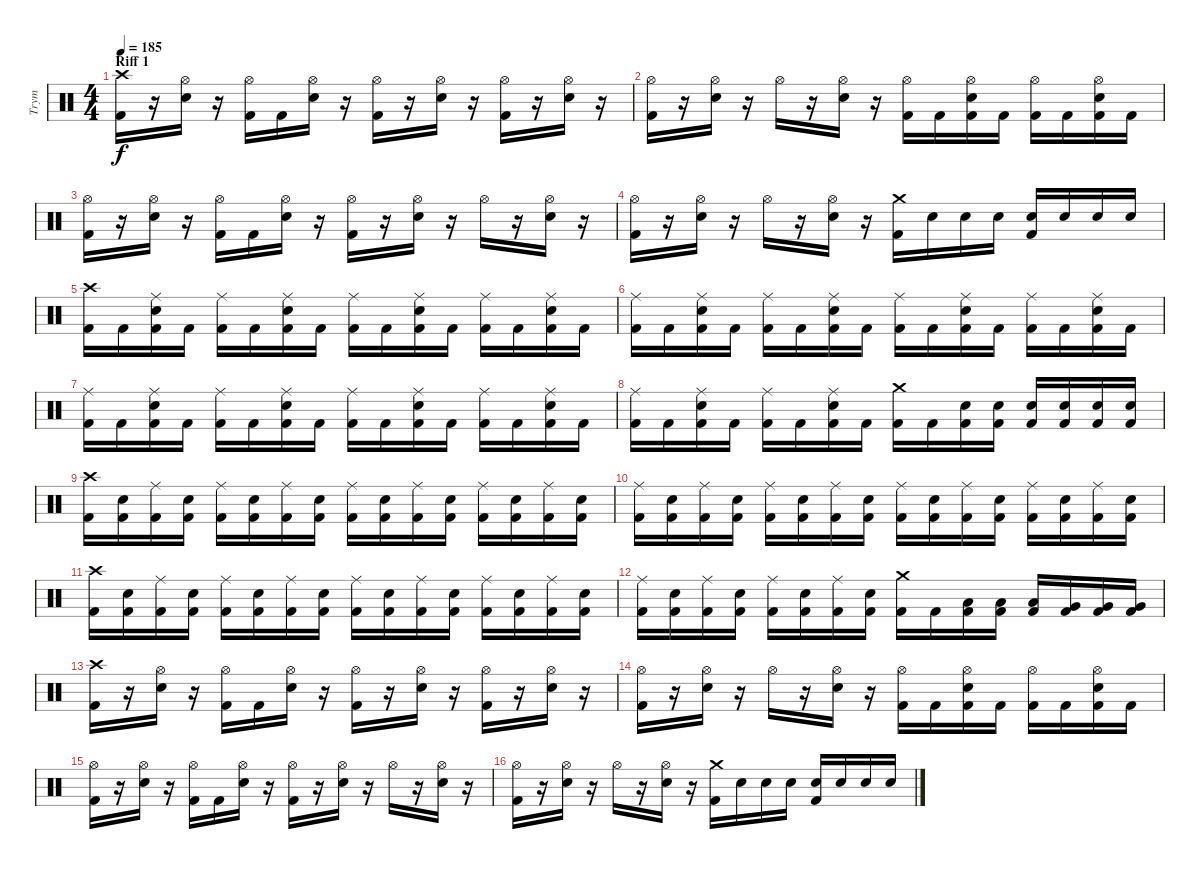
\track ("Trym" "Trym") {instrument percussion}
\staff {score}
\articulation defaults
\ts (4 4)
\section ("" "Riff 1")
\tempo 185
\clef neutral
\ks c
("Kick (hit) 2" "Crash high (hit)").16{dy f} r.16 ("Electric Snare (hit)" "Hi-Hat (open)").16 r.16 ("Kick (hit) 2" "Hi-Hat (open)").16 "Kick (hit) 2".16 ("Electric Snare (hit)" "Hi-Hat (open)").16 r.16 ("Kick (hit) 2" "Hi-Hat (open)").16 r.16 ("Electric Snare (hit)" "Hi-Hat (open)").16 r.16 ("Kick (hit) 2" "Hi-Hat (open)").16 r.16 ("Electric Snare (hit)" "Hi-Hat (open)").16 r.16 |
("Kick (hit) 2" "Hi-Hat (open)").16 r.16 ("Electric Snare (hit)" "Hi-Hat (open)").16 r.16 "Hi-Hat (open)".16 r.16 ("Electric Snare (hit)" "Hi-Hat (open)").16 r.16 ("Kick (hit) 2" "Hi-Hat (open)").16 "Kick (hit) 2".16 ("Kick (hit) 2" "Electric Snare (hit)" "Hi-Hat (open)").16 "Kick (hit) 2".16 ("Kick (hit) 2" "Hi-Hat (open)").16 "Kick (hit) 2".16 ("Kick (hit) 2" "Electric Snare (hit)" "Hi-Hat (open)").16 "Kick (hit) 2".16 |
("Kick (hit) 2" "Hi-Hat (open)").16 r.16 ("Electric Snare (hit)" "Hi-Hat (open)").16 r.16 ("Kick (hit) 2" "Hi-Hat (open)").16 "Kick (hit) 2".16 ("Electric Snare (hit)" "Hi-Hat (open)").16 r.16 ("Kick (hit) 2" "Hi-Hat (open)").16 r.16 ("Electric Snare (hit)" "Hi-Hat (open)").16 r.16 "Hi-Hat (open)".16 r.16 ("Electric Snare (hit)" "Hi-Hat (open)").16 r.16 |
("Kick (hit) 2" "Hi-Hat (open)").16 r.16 ("Electric Snare (hit)" "Hi-Hat (open)").16 r.16 "Hi-Hat (open)".16 r.16 ("Electric Snare (hit)" "Hi-Hat (open)").16 r.16 ("Kick (hit) 2" "Crash medium (hit)").16 "Electric Snare (hit)".16 "Electric Snare (hit)".16 "Electric Snare (hit)".16 ("Kick (hit) 2" "Electric Snare (hit)").16 "Electric Snare (hit)".16 "Electric Snare (hit)".16 "Electric Snare (hit)".16 |
("Kick (hit) 2" "Crash high (hit)").16 "Kick (hit) 2".16 ("Kick (hit) 2" "Electric Snare (hit)" "Ride (middle)").16 "Kick (hit) 2".16 ("Kick (hit) 2" "Ride (middle)").16 "Kick (hit) 2".16 ("Kick (hit) 2" "Electric Snare (hit)" "Ride (middle)").16 "Kick (hit) 2".16 ("Kick (hit) 2" "Ride (middle)").16 "Kick (hit) 2".16 ("Kick (hit) 2" "Electric Snare (hit)" "Ride (middle)").16 "Kick (hit) 2".16 ("Kick (hit) 2" "Ride (middle)").16 "Kick (hit) 2".16 ("Kick (hit) 2" "Electric Snare (hit)" "Ride (middle)").16 "Kick (hit) 2".16 |
("Kick (hit) 2" "Ride (middle)").16 "Kick (hit) 2".16 ("Kick (hit) 2" "Electric Snare (hit)" "Ride (middle)").16 "Kick (hit) 2".16 ("Kick (hit) 2" "Ride (middle)").16 "Kick (hit) 2".16 ("Kick (hit) 2" "Electric Snare (hit)" "Ride (middle)").16 "Kick (hit) 2".16 ("Kick (hit) 2" "Ride (middle)").16 "Kick (hit) 2".16 ("Kick (hit) 2" "Electric Snare (hit)" "Ride (middle)").16 "Kick (hit) 2".16 ("Kick (hit) 2" "Ride (middle)").16 "Kick (hit) 2".16 ("Kick (hit) 2" "Electric Snare (hit)" "Ride (middle)").16 "Kick (hit) 2".16 |
("Kick (hit) 2" "Ride (middle)").16 "Kick (hit) 2".16 ("Kick (hit) 2" "Electric Snare (hit)" "Ride (middle)").16 "Kick (hit) 2".16 ("Kick (hit) 2" "Ride (middle)").16 "Kick (hit) 2".16 ("Kick (hit) 2" "Electric Snare (hit)" "Ride (middle)").16 "Kick (hit) 2".16 ("Kick (hit) 2" "Ride (middle)").16 "Kick (hit) 2".16 ("Kick (hit) 2" "Electric Snare (hit)" "Ride (middle)").16 "Kick (hit) 2".16 ("Kick (hit) 2" "Ride (middle)").16 "Kick (hit) 2".16 ("Kick (hit) 2" "Electric Snare (hit)" "Ride (middle)").16 "Kick (hit) 2".16 |
("Kick (hit) 2" "Ride (middle)").16 "Kick (hit) 2".16 ("Kick (hit) 2" "Electric Snare (hit)" "Ride (middle)").16 "Kick (hit) 2".16 ("Kick (hit) 2" "Ride (middle)").16 "Kick (hit) 2".16 ("Kick (hit) 2" "Electric Snare (hit)" "Ride (middle)").16 "Kick (hit) 2".16 ("Kick (hit) 2" "Crash medium (hit)").16 "Kick (hit) 2".16 ("Kick (hit) 2" "Electric Snare (hit)").16 ("Kick (hit) 2" "Electric Snare (hit)").16 ("Kick (hit) 2" "Electric Snare (hit)").16 ("Kick (hit) 2" "Electric Snare (hit)").16 ("Kick (hit) 2" "Electric Snare (hit)").16 ("Kick (hit) 2" "Electric Snare (hit)").16 |
("Kick (hit) 2" "Crash high (hit)").16 ("Kick (hit) 2" "Electric Snare (hit)").16 ("Kick (hit) 2" "Ride (middle)").16 ("Kick (hit) 2" "Electric Snare (hit)").16 ("Kick (hit) 2" "Ride (middle)").16 ("Kick (hit) 2" "Electric Snare (hit)").16 ("Kick (hit) 2" "Ride (middle)").16 ("Kick (hit) 2" "Electric Snare (hit)").16 ("Kick (hit) 2" "Ride (middle)").16 ("Kick (hit) 2" "Electric Snare (hit)").16 ("Kick (hit) 2" "Ride (middle)").16 ("Kick (hit) 2" "Electric Snare (hit)").16 ("Kick (hit) 2" "Ride (middle)").16 ("Kick (hit) 2" "Electric Snare (hit)").16 ("Kick (hit) 2" "Ride (middle)").16 ("Kick (hit) 2" "Electric Snare (hit)").16 |
("Kick (hit) 2" "Ride (middle)").16 ("Kick (hit) 2" "Electric Snare (hit)").16 ("Kick (hit) 2" "Ride (middle)").16 ("Kick (hit) 2" "Electric Snare (hit)").16 ("Kick (hit) 2" "Ride (middle)").16 ("Kick (hit) 2" "Electric Snare (hit)").16 ("Kick (hit) 2" "Ride (middle)").16 ("Kick (hit) 2" "Electric Snare (hit)").16 ("Kick (hit) 2" "Ride (middle)").16 ("Kick (hit) 2" "Electric Snare (hit)").16 ("Kick (hit) 2" "Ride (middle)").16 ("Kick (hit) 2" "Electric Snare (hit)").16 ("Kick (hit) 2" "Ride (middle)").16 ("Kick (hit) 2" "Electric Snare (hit)").16 ("Kick (hit) 2" "Ride (middle)").16 ("Kick (hit) 2" "Electric Snare (hit)").16 |
("Kick (hit) 2" "Crash high (hit)").16 ("Kick (hit) 2" "Electric Snare (hit)").16 ("Kick (hit) 2" "Ride (middle)").16 ("Kick (hit) 2" "Electric Snare (hit)").16 ("Kick (hit) 2" "Ride (middle)").16 ("Kick (hit) 2" "Electric Snare (hit)").16 ("Kick (hit) 2" "Ride (middle)").16 ("Kick (hit) 2" "Electric Snare (hit)").16 ("Kick (hit) 2" "Ride (middle)").16 ("Kick (hit) 2" "Electric Snare (hit)").16 ("Kick (hit) 2" "Ride (middle)").16 ("Kick (hit) 2" "Electric Snare (hit)").16 ("Kick (hit) 2" "Ride (middle)").16 ("Kick (hit) 2" "Electric Snare (hit)").16 ("Kick (hit) 2" "Ride (middle)").16 ("Kick (hit) 2" "Electric Snare (hit)").16 |
("Kick (hit) 2" "Ride (middle)").16 ("Kick (hit) 2" "Electric Snare (hit)").16 ("Kick (hit) 2" "Ride (middle)").16 ("Kick (hit) 2" "Electric Snare (hit)").16 ("Kick (hit) 2" "Ride (middle)").16 ("Kick (hit) 2" "Electric Snare (hit)").16 ("Kick (hit) 2" "Ride (middle)").16 ("Kick (hit) 2" "Electric Snare (hit)").16 ("Kick (hit) 2" "Crash medium (hit)").16 "Kick (hit) 2".16 ("Kick (hit) 2" "Low Tom (hit)").16 ("Kick (hit) 2" "Low Tom (hit)").16 ("Kick (hit) 2" "Low Tom (hit)").16 ("Kick (hit) 2" "Very Low Tom (hit)").16 ("Kick (hit) 2" "Very Low Tom (hit)").16 ("Kick (hit) 2" "Very Low Tom (hit)").16 |
("Kick (hit) 2" "Crash high (hit)").16 r.16 ("Electric Snare (hit)" "Hi-Hat (open)").16 r.16 ("Kick (hit) 2" "Hi-Hat (open)").16 "Kick (hit) 2".16 ("Electric Snare (hit)" "Hi-Hat (open)").16 r.16 ("Kick (hit) 2" "Hi-Hat (open)").16 r.16 ("Electric Snare (hit)" "Hi-Hat (open)").16 r.16 ("Kick (hit) 2" "Hi-Hat (open)").16 r.16 ("Electric Snare (hit)" "Hi-Hat (open)").16 r.16 |
("Kick (hit) 2" "Hi-Hat (open)").16 r.16 ("Electric Snare (hit)" "Hi-Hat (open)").16 r.16 "Hi-Hat (open)".16 r.16 ("Electric Snare (hit)" "Hi-Hat (open)").16 r.16 ("Kick (hit) 2" "Hi-Hat (open)").16 "Kick (hit) 2".16 ("Kick (hit) 2" "Electric Snare (hit)" "Hi-Hat (open)").16 "Kick (hit) 2".16 ("Kick (hit) 2" "Hi-Hat (open)").16 "Kick (hit) 2".16 ("Kick (hit) 2" "Electric Snare (hit)" "Hi-Hat (open)").16 "Kick (hit) 2".16 |
("Kick (hit) 2" "Hi-Hat (open)").16 r.16 ("Electric Snare (hit)" "Hi-Hat (open)").16 r.16 ("Kick (hit) 2" "Hi-Hat (open)").16 "Kick (hit) 2".16 ("Electric Snare (hit)" "Hi-Hat (open)").16 r.16 ("Kick (hit) 2" "Hi-Hat (open)").16 r.16 ("Electric Snare (hit)" "Hi-Hat (open)").16 r.16 "Hi-Hat (open)".16 r.16 ("Electric Snare (hit)" "Hi-Hat (open)").16 r.16 |
("Kick (hit) 2" "Hi-Hat (open)").16 r.16 ("Electric Snare (hit)" "Hi-Hat (open)").16 r.16 "Hi-Hat (open)".16 r.16 ("Electric Snare (hit)" "Hi-Hat (open)").16 r.16 ("Kick (hit) 2" "Crash medium (hit)").16 "Electric Snare (hit)".16 "Electric Snare (hit)".16 "Electric Snare (hit)".16 ("Kick (hit) 2" "Electric Snare (hit)").16 "Electric Snare (hit)".16 "Electric Snare (hit)".16 "Electric Snare (hit)".16
